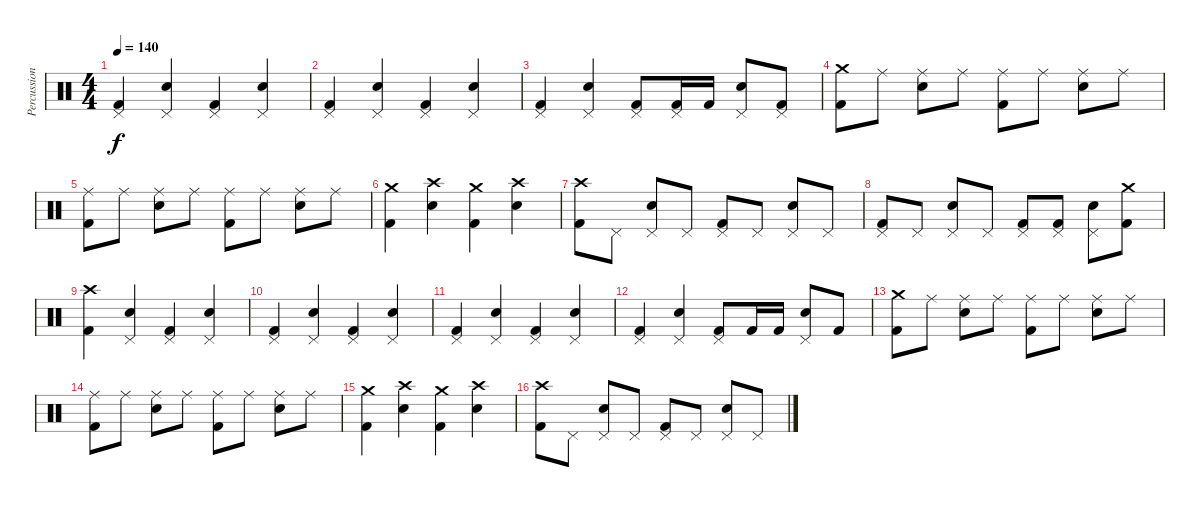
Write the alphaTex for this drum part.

\track ("Percussion" "Percussion") {instrument percussion}
\staff {score}
\articulation defaults
\ts (4 4)
\tempo 140
\clef neutral
\ks c
("Pedal Hi-Hat (hit)" "Kick (hit) 2").4{dy f} ("Pedal Hi-Hat (hit)" "Snare (hit) 2").4 ("Pedal Hi-Hat (hit)" "Kick (hit) 2").4 ("Pedal Hi-Hat (hit)" "Snare (hit) 2").4 |
("Pedal Hi-Hat (hit)" "Kick (hit) 2").4 ("Pedal Hi-Hat (hit)" "Snare (hit) 2").4 ("Pedal Hi-Hat (hit)" "Kick (hit) 2").4 ("Pedal Hi-Hat (hit)" "Snare (hit) 2").4 |
("Pedal Hi-Hat (hit)" "Kick (hit) 2").4 ("Pedal Hi-Hat (hit)" "Snare (hit) 2").4 ("Pedal Hi-Hat (hit)" "Kick (hit) 2").8 ("Pedal Hi-Hat (hit)" "Kick (hit) 2").16 "Kick (hit) 2".16 ("Pedal Hi-Hat (hit)" "Snare (hit) 2").8 ("Pedal Hi-Hat (hit)" "Kick (hit) 2").8 |
("Crash medium (hit)" "Kick (hit) 2").8 "Ride (middle)".8 ("Ride (middle)" "Snare (hit) 2").8 "Ride (middle)".8 ("Ride (middle)" "Kick (hit) 2").8 "Ride (middle)".8 ("Ride (middle)" "Snare (hit) 2").8 "Ride (middle)".8 |
("Ride (middle)" "Kick (hit) 2").8 "Ride (middle)".8 ("Ride (middle)" "Snare (hit) 2").8 "Ride (middle)".8 ("Ride (middle)" "Kick (hit) 2").8 "Ride (middle)".8 ("Ride (middle)" "Snare (hit) 2").8 "Ride (middle)".8 |
("Crash medium (hit)" "Kick (hit) 2").4 ("Crash high (hit)" "Snare (hit) 2").4 ("Crash medium (hit)" "Kick (hit) 2").4 ("Crash high (hit)" "Snare (hit) 2").4 |
("Crash high (hit)" "Kick (hit) 2").8 "Pedal Hi-Hat (hit)".8 ("Pedal Hi-Hat (hit)" "Snare (hit) 2").8 "Pedal Hi-Hat (hit)".8 ("Pedal Hi-Hat (hit)" "Kick (hit) 2").8 "Pedal Hi-Hat (hit)".8 ("Pedal Hi-Hat (hit)" "Snare (hit) 2").8 "Pedal Hi-Hat (hit)".8 |
("Pedal Hi-Hat (hit)" "Kick (hit) 2").8 "Pedal Hi-Hat (hit)".8 ("Pedal Hi-Hat (hit)" "Snare (hit) 2").8 "Pedal Hi-Hat (hit)".8 ("Pedal Hi-Hat (hit)" "Kick (hit) 2").8 ("Pedal Hi-Hat (hit)" "Kick (hit) 2").8 ("Pedal Hi-Hat (hit)" "Snare (hit) 2").8 ("Crash medium (hit)" "Kick (hit) 2").8 |
("Crash high (hit)" "Kick (hit) 2").4 ("Pedal Hi-Hat (hit)" "Snare (hit) 2").4 ("Pedal Hi-Hat (hit)" "Kick (hit) 2").4 ("Pedal Hi-Hat (hit)" "Snare (hit) 2").4 |
("Pedal Hi-Hat (hit)" "Kick (hit) 2").4 ("Pedal Hi-Hat (hit)" "Snare (hit) 2").4 ("Pedal Hi-Hat (hit)" "Kick (hit) 2").4 ("Pedal Hi-Hat (hit)" "Snare (hit) 2").4 |
("Pedal Hi-Hat (hit)" "Kick (hit) 2").4 ("Pedal Hi-Hat (hit)" "Snare (hit) 2").4 ("Pedal Hi-Hat (hit)" "Kick (hit) 2").4 ("Pedal Hi-Hat (hit)" "Snare (hit) 2").4 |
("Pedal Hi-Hat (hit)" "Kick (hit) 2").4 ("Pedal Hi-Hat (hit)" "Snare (hit) 2").4 ("Pedal Hi-Hat (hit)" "Kick (hit) 2").8 "Kick (hit) 2".16 "Kick (hit) 2".16 ("Pedal Hi-Hat (hit)" "Snare (hit) 2").8 "Kick (hit) 2".8 |
("Crash medium (hit)" "Kick (hit) 2").8 "Ride (middle)".8 ("Ride (middle)" "Snare (hit) 2").8 "Ride (middle)".8 ("Ride (middle)" "Kick (hit) 2").8 "Ride (middle)".8 ("Ride (middle)" "Snare (hit) 2").8 "Ride (middle)".8 |
("Ride (middle)" "Kick (hit) 2").8 "Ride (middle)".8 ("Ride (middle)" "Snare (hit) 2").8 "Ride (middle)".8 ("Ride (middle)" "Kick (hit) 2").8 "Ride (middle)".8 ("Ride (middle)" "Snare (hit) 2").8 "Ride (middle)".8 |
("Crash medium (hit)" "Kick (hit) 2").4 ("Crash high (hit)" "Snare (hit) 2").4 ("Crash medium (hit)" "Kick (hit) 2").4 ("Crash high (hit)" "Snare (hit) 2").4 |
("Crash high (hit)" "Kick (hit) 2").8 "Pedal Hi-Hat (hit)".8 ("Pedal Hi-Hat (hit)" "Snare (hit) 2").8 "Pedal Hi-Hat (hit)".8 ("Pedal Hi-Hat (hit)" "Kick (hit) 2").8 "Pedal Hi-Hat (hit)".8 ("Pedal Hi-Hat (hit)" "Snare (hit) 2").8 "Pedal Hi-Hat (hit)".8
